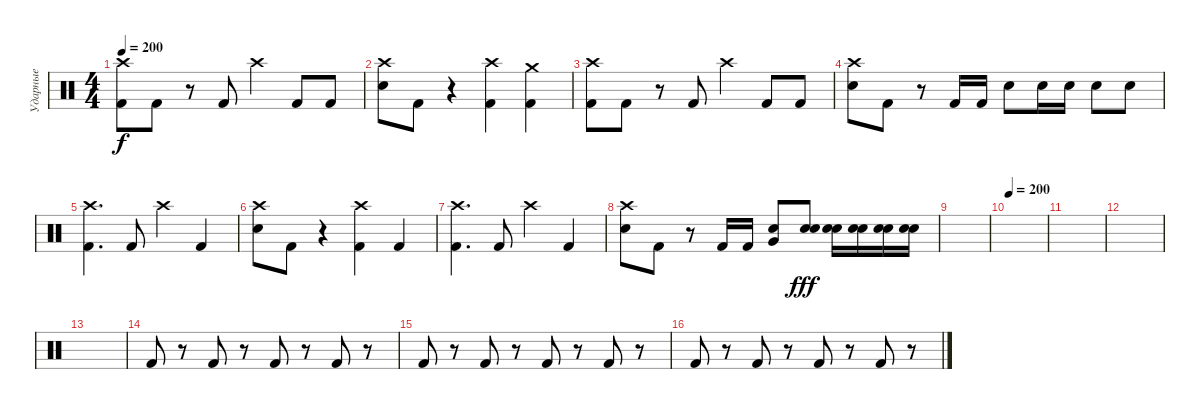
\track ("Ударные" "Ударные") {instrument percussion}
\staff {score}
\articulation defaults
\ts (4 4)
\tempo 200
\clef neutral
\ks c
("Crash high (hit)" "Kick (hit) 2").8{dy f} "Kick (hit) 2".8 r.8 "Kick (hit) 2".8 "Crash high (hit)".4 "Kick (hit) 2".8 "Kick (hit) 2".8 |
("Crash high (hit)" "Electric Snare (hit)").8 "Kick (hit) 2".8 r.4 ("Crash high (hit)" "Kick (hit) 2").4 ("Crash medium (hit)" "Kick (hit) 2").4 |
("Crash high (hit)" "Kick (hit) 2").8 "Kick (hit) 2".8 r.8 "Kick (hit) 2".8 "Crash high (hit)".4 "Kick (hit) 2".8 "Kick (hit) 2".8 |
("Crash high (hit)" "Electric Snare (hit)").8 "Kick (hit) 2".8 r.8 "Kick (hit) 2".16 "Kick (hit) 2".16 "Electric Snare (hit)".8 "Electric Snare (hit)".16 "Electric Snare (hit)".16 "Electric Snare (hit)".8 "Electric Snare (hit)".8 |
("Crash high (hit)" "Kick (hit) 2").4{d} "Kick (hit) 2".8 "Crash high (hit)".4 "Kick (hit) 2".4 |
("Crash high (hit)" "Electric Snare (hit)").8 "Kick (hit) 2".8 r.4 ("Crash high (hit)" "Kick (hit) 2").4 "Kick (hit) 2".4 |
("Crash high (hit)" "Kick (hit) 2").4{d} "Kick (hit) 2".8 "Crash high (hit)".4 "Kick (hit) 2".4 |
("Crash high (hit)" "Electric Snare (hit)").8 "Kick (hit) 2".8 r.8 "Kick (hit) 2".16 "Kick (hit) 2".16 ("Very Low Tom (hit)" "Electric Snare (hit)").8 ("Snare (hit) 2" "Electric Snare (hit)").8{dy fff} ("Snare (hit) 2" "Electric Snare (hit)").16 ("Snare (hit) 2" "Electric Snare (hit)").16 ("Snare (hit) 2" "Electric Snare (hit)").16 ("Snare (hit) 2" "Electric Snare (hit)").16 |
|
\tempo 200
|
|
|
|
"Kick (hit) 2".8 r.8 "Kick (hit) 2".8 r.8 "Kick (hit) 2".8 r.8 "Kick (hit) 2".8 r.8 |
"Kick (hit) 2".8 r.8 "Kick (hit) 2".8 r.8 "Kick (hit) 2".8 r.8 "Kick (hit) 2".8 r.8 |
"Kick (hit) 2".8 r.8 "Kick (hit) 2".8 r.8 "Kick (hit) 2".8 r.8 "Kick (hit) 2".8 r.8
